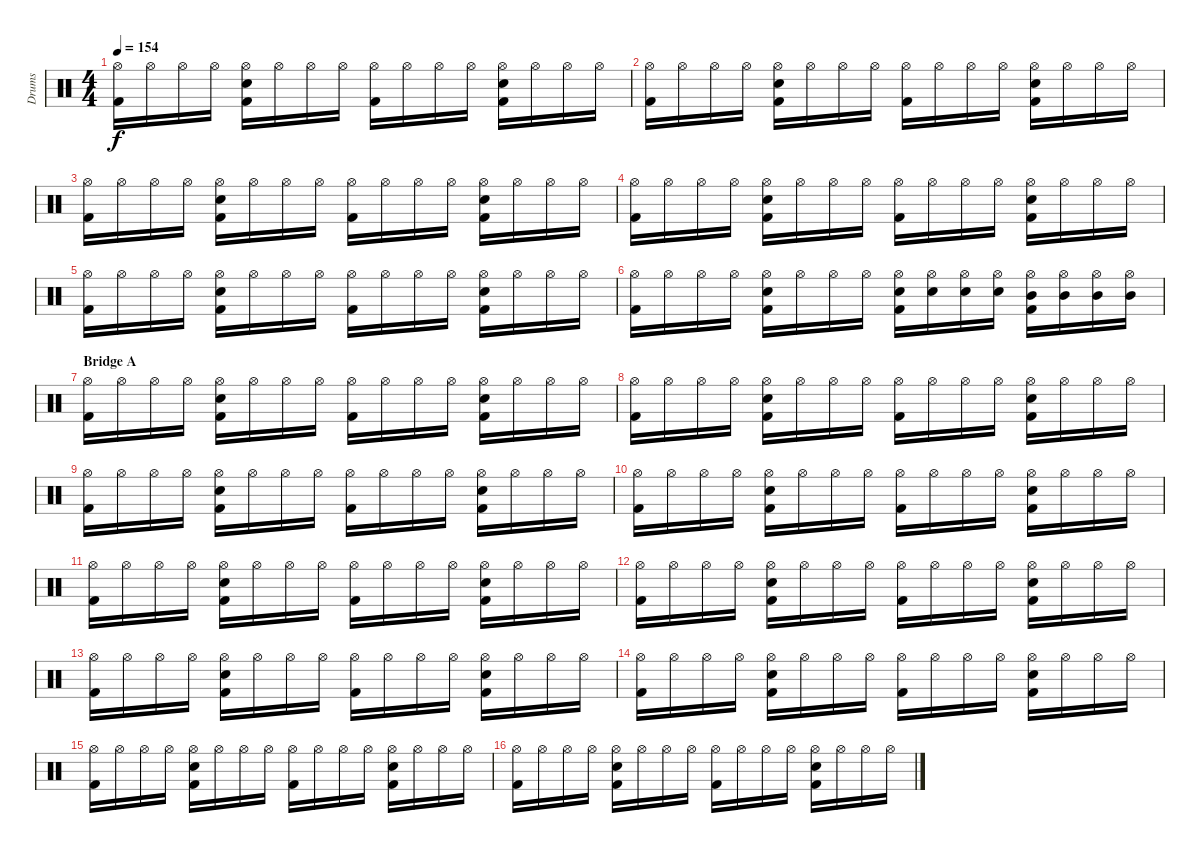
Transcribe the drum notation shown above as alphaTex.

\track ("Drums" "Drums") {instrument percussion}
\staff {score}
\articulation defaults
\ts (4 4)
\tempo 154
\clef neutral
\ks c
("Hi-Hat (open)" "Kick (hit) 2").16{dy f} "Hi-Hat (open)".16 "Hi-Hat (open)".16 "Hi-Hat (open)".16 ("Hi-Hat (open)" "Snare (hit) 2" "Kick (hit) 2").16 "Hi-Hat (open)".16 "Hi-Hat (open)".16 "Hi-Hat (open)".16 ("Hi-Hat (open)" "Kick (hit) 2").16 "Hi-Hat (open)".16 "Hi-Hat (open)".16 "Hi-Hat (open)".16 ("Hi-Hat (open)" "Snare (hit) 2" "Kick (hit) 2").16 "Hi-Hat (open)".16 "Hi-Hat (open)".16 "Hi-Hat (open)".16 |
("Hi-Hat (open)" "Kick (hit) 2").16 "Hi-Hat (open)".16 "Hi-Hat (open)".16 "Hi-Hat (open)".16 ("Hi-Hat (open)" "Snare (hit) 2" "Kick (hit) 2").16 "Hi-Hat (open)".16 "Hi-Hat (open)".16 "Hi-Hat (open)".16 ("Hi-Hat (open)" "Kick (hit) 2").16 "Hi-Hat (open)".16 "Hi-Hat (open)".16 "Hi-Hat (open)".16 ("Hi-Hat (open)" "Snare (hit) 2" "Kick (hit) 2").16 "Hi-Hat (open)".16 "Hi-Hat (open)".16 "Hi-Hat (open)".16 |
("Hi-Hat (open)" "Kick (hit) 2").16 "Hi-Hat (open)".16 "Hi-Hat (open)".16 "Hi-Hat (open)".16 ("Hi-Hat (open)" "Snare (hit) 2" "Kick (hit) 2").16 "Hi-Hat (open)".16 "Hi-Hat (open)".16 "Hi-Hat (open)".16 ("Hi-Hat (open)" "Kick (hit) 2").16 "Hi-Hat (open)".16 "Hi-Hat (open)".16 "Hi-Hat (open)".16 ("Hi-Hat (open)" "Snare (hit) 2" "Kick (hit) 2").16 "Hi-Hat (open)".16 "Hi-Hat (open)".16 "Hi-Hat (open)".16 |
("Hi-Hat (open)" "Kick (hit) 2").16 "Hi-Hat (open)".16 "Hi-Hat (open)".16 "Hi-Hat (open)".16 ("Hi-Hat (open)" "Snare (hit) 2" "Kick (hit) 2").16 "Hi-Hat (open)".16 "Hi-Hat (open)".16 "Hi-Hat (open)".16 ("Hi-Hat (open)" "Kick (hit) 2").16 "Hi-Hat (open)".16 "Hi-Hat (open)".16 "Hi-Hat (open)".16 ("Hi-Hat (open)" "Snare (hit) 2" "Kick (hit) 2").16 "Hi-Hat (open)".16 "Hi-Hat (open)".16 "Hi-Hat (open)".16 |
("Hi-Hat (open)" "Kick (hit) 2").16 "Hi-Hat (open)".16 "Hi-Hat (open)".16 "Hi-Hat (open)".16 ("Hi-Hat (open)" "Snare (hit) 2" "Kick (hit) 2").16 "Hi-Hat (open)".16 "Hi-Hat (open)".16 "Hi-Hat (open)".16 ("Hi-Hat (open)" "Kick (hit) 2").16 "Hi-Hat (open)".16 "Hi-Hat (open)".16 "Hi-Hat (open)".16 ("Hi-Hat (open)" "Snare (hit) 2" "Kick (hit) 2").16 "Hi-Hat (open)".16 "Hi-Hat (open)".16 "Hi-Hat (open)".16 |
("Hi-Hat (open)" "Kick (hit) 2").16 "Hi-Hat (open)".16 "Hi-Hat (open)".16 "Hi-Hat (open)".16 ("Hi-Hat (open)" "Snare (hit) 2" "Kick (hit) 2").16 "Hi-Hat (open)".16 "Hi-Hat (open)".16 "Hi-Hat (open)".16 ("Hi-Hat (open)" "Snare (hit) 2" "Kick (hit) 2").16 ("Hi-Hat (open)" "Snare (hit) 2").16 ("Hi-Hat (open)" "Snare (hit) 2").16 ("Hi-Hat (open)" "Snare (hit) 2").16 ("Hi-Hat (open)" "Mid Tom (hit)" "Kick (hit) 2").16 ("Hi-Hat (open)" "Mid Tom (hit)").16 ("Hi-Hat (open)" "Mid Tom (hit)").16 ("Hi-Hat (open)" "Mid Tom (hit)").16 |
\section ("" "Bridge A")
("Hi-Hat (open)" "Kick (hit) 2").16 "Hi-Hat (open)".16 "Hi-Hat (open)".16 "Hi-Hat (open)".16 ("Hi-Hat (open)" "Snare (hit) 2" "Kick (hit) 2").16 "Hi-Hat (open)".16 "Hi-Hat (open)".16 "Hi-Hat (open)".16 ("Hi-Hat (open)" "Kick (hit) 2").16 "Hi-Hat (open)".16 "Hi-Hat (open)".16 "Hi-Hat (open)".16 ("Hi-Hat (open)" "Snare (hit) 2" "Kick (hit) 2").16 "Hi-Hat (open)".16 "Hi-Hat (open)".16 "Hi-Hat (open)".16 |
("Hi-Hat (open)" "Kick (hit) 2").16 "Hi-Hat (open)".16 "Hi-Hat (open)".16 "Hi-Hat (open)".16 ("Hi-Hat (open)" "Snare (hit) 2" "Kick (hit) 2").16 "Hi-Hat (open)".16 "Hi-Hat (open)".16 "Hi-Hat (open)".16 ("Hi-Hat (open)" "Kick (hit) 2").16 "Hi-Hat (open)".16 "Hi-Hat (open)".16 "Hi-Hat (open)".16 ("Hi-Hat (open)" "Snare (hit) 2" "Kick (hit) 2").16 "Hi-Hat (open)".16 "Hi-Hat (open)".16 "Hi-Hat (open)".16 |
("Hi-Hat (open)" "Kick (hit) 2").16 "Hi-Hat (open)".16 "Hi-Hat (open)".16 "Hi-Hat (open)".16 ("Hi-Hat (open)" "Snare (hit) 2" "Kick (hit) 2").16 "Hi-Hat (open)".16 "Hi-Hat (open)".16 "Hi-Hat (open)".16 ("Hi-Hat (open)" "Kick (hit) 2").16 "Hi-Hat (open)".16 "Hi-Hat (open)".16 "Hi-Hat (open)".16 ("Hi-Hat (open)" "Snare (hit) 2" "Kick (hit) 2").16 "Hi-Hat (open)".16 "Hi-Hat (open)".16 "Hi-Hat (open)".16 |
("Hi-Hat (open)" "Kick (hit) 2").16 "Hi-Hat (open)".16 "Hi-Hat (open)".16 "Hi-Hat (open)".16 ("Hi-Hat (open)" "Snare (hit) 2" "Kick (hit) 2").16 "Hi-Hat (open)".16 "Hi-Hat (open)".16 "Hi-Hat (open)".16 ("Hi-Hat (open)" "Kick (hit) 2").16 "Hi-Hat (open)".16 "Hi-Hat (open)".16 "Hi-Hat (open)".16 ("Hi-Hat (open)" "Snare (hit) 2" "Kick (hit) 2").16 "Hi-Hat (open)".16 "Hi-Hat (open)".16 "Hi-Hat (open)".16 |
("Hi-Hat (open)" "Kick (hit) 2").16 "Hi-Hat (open)".16 "Hi-Hat (open)".16 "Hi-Hat (open)".16 ("Hi-Hat (open)" "Snare (hit) 2" "Kick (hit) 2").16 "Hi-Hat (open)".16 "Hi-Hat (open)".16 "Hi-Hat (open)".16 ("Hi-Hat (open)" "Kick (hit) 2").16 "Hi-Hat (open)".16 "Hi-Hat (open)".16 "Hi-Hat (open)".16 ("Hi-Hat (open)" "Snare (hit) 2" "Kick (hit) 2").16 "Hi-Hat (open)".16 "Hi-Hat (open)".16 "Hi-Hat (open)".16 |
("Hi-Hat (open)" "Kick (hit) 2").16 "Hi-Hat (open)".16 "Hi-Hat (open)".16 "Hi-Hat (open)".16 ("Hi-Hat (open)" "Snare (hit) 2" "Kick (hit) 2").16 "Hi-Hat (open)".16 "Hi-Hat (open)".16 "Hi-Hat (open)".16 ("Hi-Hat (open)" "Kick (hit) 2").16 "Hi-Hat (open)".16 "Hi-Hat (open)".16 "Hi-Hat (open)".16 ("Hi-Hat (open)" "Snare (hit) 2" "Kick (hit) 2").16 "Hi-Hat (open)".16 "Hi-Hat (open)".16 "Hi-Hat (open)".16 |
("Hi-Hat (open)" "Kick (hit) 2").16 "Hi-Hat (open)".16 "Hi-Hat (open)".16 "Hi-Hat (open)".16 ("Hi-Hat (open)" "Snare (hit) 2" "Kick (hit) 2").16 "Hi-Hat (open)".16 "Hi-Hat (open)".16 "Hi-Hat (open)".16 ("Hi-Hat (open)" "Kick (hit) 2").16 "Hi-Hat (open)".16 "Hi-Hat (open)".16 "Hi-Hat (open)".16 ("Hi-Hat (open)" "Snare (hit) 2" "Kick (hit) 2").16 "Hi-Hat (open)".16 "Hi-Hat (open)".16 "Hi-Hat (open)".16 |
("Hi-Hat (open)" "Kick (hit) 2").16 "Hi-Hat (open)".16 "Hi-Hat (open)".16 "Hi-Hat (open)".16 ("Hi-Hat (open)" "Snare (hit) 2" "Kick (hit) 2").16 "Hi-Hat (open)".16 "Hi-Hat (open)".16 "Hi-Hat (open)".16 ("Hi-Hat (open)" "Kick (hit) 2").16 "Hi-Hat (open)".16 "Hi-Hat (open)".16 "Hi-Hat (open)".16 ("Hi-Hat (open)" "Snare (hit) 2" "Kick (hit) 2").16 "Hi-Hat (open)".16 "Hi-Hat (open)".16 "Hi-Hat (open)".16 |
("Hi-Hat (open)" "Kick (hit) 2").16 "Hi-Hat (open)".16 "Hi-Hat (open)".16 "Hi-Hat (open)".16 ("Hi-Hat (open)" "Snare (hit) 2" "Kick (hit) 2").16 "Hi-Hat (open)".16 "Hi-Hat (open)".16 "Hi-Hat (open)".16 ("Hi-Hat (open)" "Kick (hit) 2").16 "Hi-Hat (open)".16 "Hi-Hat (open)".16 "Hi-Hat (open)".16 ("Hi-Hat (open)" "Snare (hit) 2" "Kick (hit) 2").16 "Hi-Hat (open)".16 "Hi-Hat (open)".16 "Hi-Hat (open)".16 |
("Hi-Hat (open)" "Kick (hit) 2").16 "Hi-Hat (open)".16 "Hi-Hat (open)".16 "Hi-Hat (open)".16 ("Hi-Hat (open)" "Snare (hit) 2" "Kick (hit) 2").16 "Hi-Hat (open)".16 "Hi-Hat (open)".16 "Hi-Hat (open)".16 ("Hi-Hat (open)" "Kick (hit) 2").16 "Hi-Hat (open)".16 "Hi-Hat (open)".16 "Hi-Hat (open)".16 ("Hi-Hat (open)" "Snare (hit) 2" "Kick (hit) 2").16 "Hi-Hat (open)".16 "Hi-Hat (open)".16 "Hi-Hat (open)".16
